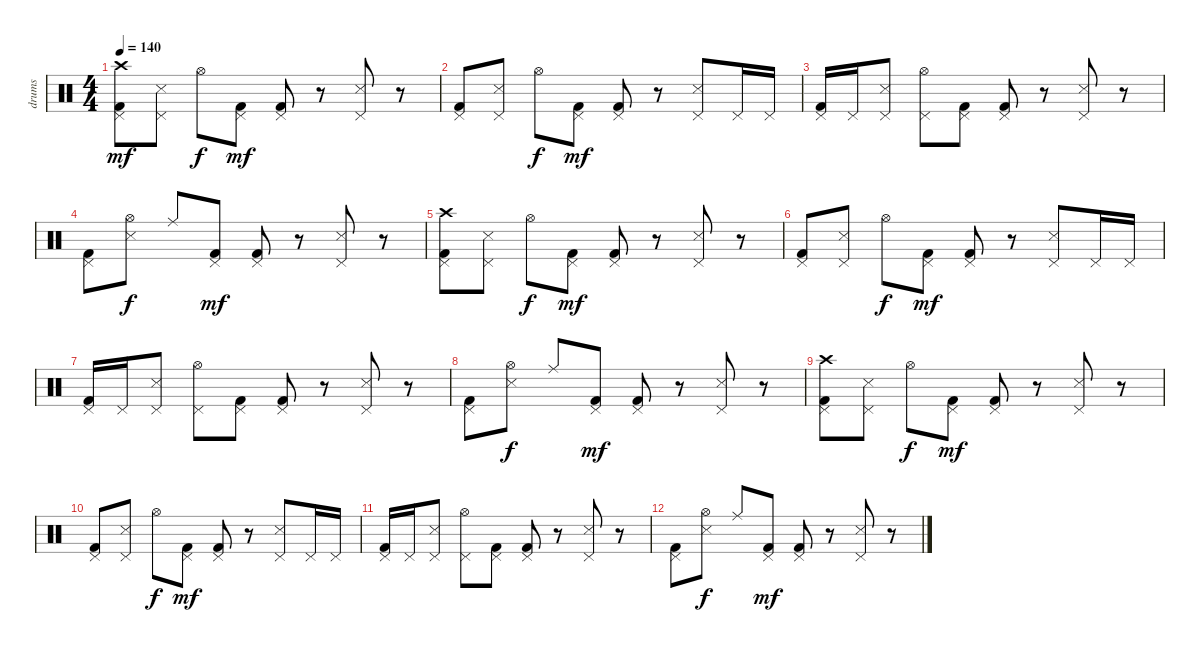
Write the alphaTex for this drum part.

\track ("drums" "drums") {instrument percussion}
\staff {score}
\articulation defaults
\ts (4 4)
\tempo 140
\clef neutral
\ks c
("Crash high (hit)" "Pedal Hi-Hat (hit)" "Kick (hit) 2").8{dy mf} ("Pedal Hi-Hat (hit)" "Snare (side stick) 3").8 "Hi-Hat (open)".8{dy f} ("Pedal Hi-Hat (hit)" "Kick (hit) 2").8{dy mf} ("Pedal Hi-Hat (hit)" "Kick (hit) 2").8 r.8 ("Pedal Hi-Hat (hit)" "Snare (side stick) 3").8 r.8 |
("Pedal Hi-Hat (hit)" "Kick (hit) 2").8 ("Pedal Hi-Hat (hit)" "Snare (side stick) 3").8 "Hi-Hat (open)".8{dy f} ("Pedal Hi-Hat (hit)" "Kick (hit) 2").8{dy mf} ("Pedal Hi-Hat (hit)" "Kick (hit) 2").8 r.8 ("Pedal Hi-Hat (hit)" "Snare (side stick) 3").8 "Pedal Hi-Hat (hit)".16 "Pedal Hi-Hat (hit)".16 |
("Pedal Hi-Hat (hit)" "Kick (hit) 2").16 "Pedal Hi-Hat (hit)".16 ("Pedal Hi-Hat (hit)" "Snare (side stick) 3").8 ("Pedal Hi-Hat (hit)" "Hi-Hat (open)").8 ("Pedal Hi-Hat (hit)" "Kick (hit) 2").8 ("Pedal Hi-Hat (hit)" "Kick (hit) 2").8 r.8 ("Pedal Hi-Hat (hit)" "Snare (side stick) 3").8 r.8 |
("Pedal Hi-Hat (hit)" "Kick (hit) 2").8 ("Hi-Hat (open)" "Snare (side stick) 3").8{dy f} "Ride (middle)".8 ("Pedal Hi-Hat (hit)" "Kick (hit) 2").8{dy mf} ("Pedal Hi-Hat (hit)" "Kick (hit) 2").8 r.8 ("Pedal Hi-Hat (hit)" "Snare (side stick) 3").8 r.8 |
("Crash high (hit)" "Pedal Hi-Hat (hit)" "Kick (hit) 2").8 ("Pedal Hi-Hat (hit)" "Snare (side stick) 3").8 "Hi-Hat (open)".8{dy f} ("Pedal Hi-Hat (hit)" "Kick (hit) 2").8{dy mf} ("Pedal Hi-Hat (hit)" "Kick (hit) 2").8 r.8 ("Pedal Hi-Hat (hit)" "Snare (side stick) 3").8 r.8 |
("Pedal Hi-Hat (hit)" "Kick (hit) 2").8 ("Pedal Hi-Hat (hit)" "Snare (side stick) 3").8 "Hi-Hat (open)".8{dy f} ("Pedal Hi-Hat (hit)" "Kick (hit) 2").8{dy mf} ("Pedal Hi-Hat (hit)" "Kick (hit) 2").8 r.8 ("Pedal Hi-Hat (hit)" "Snare (side stick) 3").8 "Pedal Hi-Hat (hit)".16 "Pedal Hi-Hat (hit)".16 |
("Pedal Hi-Hat (hit)" "Kick (hit) 2").16 "Pedal Hi-Hat (hit)".16 ("Pedal Hi-Hat (hit)" "Snare (side stick) 3").8 ("Pedal Hi-Hat (hit)" "Hi-Hat (open)").8 ("Pedal Hi-Hat (hit)" "Kick (hit) 2").8 ("Pedal Hi-Hat (hit)" "Kick (hit) 2").8 r.8 ("Pedal Hi-Hat (hit)" "Snare (side stick) 3").8 r.8 |
("Pedal Hi-Hat (hit)" "Kick (hit) 2").8 ("Hi-Hat (open)" "Snare (side stick) 3").8{dy f} "Ride (middle)".8 ("Pedal Hi-Hat (hit)" "Kick (hit) 2").8{dy mf} ("Pedal Hi-Hat (hit)" "Kick (hit) 2").8 r.8 ("Pedal Hi-Hat (hit)" "Snare (side stick) 3").8 r.8 |
("Crash high (hit)" "Pedal Hi-Hat (hit)" "Kick (hit) 2").8 ("Pedal Hi-Hat (hit)" "Snare (side stick) 3").8 "Hi-Hat (open)".8{dy f} ("Pedal Hi-Hat (hit)" "Kick (hit) 2").8{dy mf} ("Pedal Hi-Hat (hit)" "Kick (hit) 2").8 r.8 ("Pedal Hi-Hat (hit)" "Snare (side stick) 3").8 r.8 |
("Pedal Hi-Hat (hit)" "Kick (hit) 2").8 ("Pedal Hi-Hat (hit)" "Snare (side stick) 3").8 "Hi-Hat (open)".8{dy f} ("Pedal Hi-Hat (hit)" "Kick (hit) 2").8{dy mf} ("Pedal Hi-Hat (hit)" "Kick (hit) 2").8 r.8 ("Pedal Hi-Hat (hit)" "Snare (side stick) 3").8 "Pedal Hi-Hat (hit)".16 "Pedal Hi-Hat (hit)".16 |
("Pedal Hi-Hat (hit)" "Kick (hit) 2").16 "Pedal Hi-Hat (hit)".16 ("Pedal Hi-Hat (hit)" "Snare (side stick) 3").8 ("Pedal Hi-Hat (hit)" "Hi-Hat (open)").8 ("Pedal Hi-Hat (hit)" "Kick (hit) 2").8 ("Pedal Hi-Hat (hit)" "Kick (hit) 2").8 r.8 ("Pedal Hi-Hat (hit)" "Snare (side stick) 3").8 r.8 |
("Pedal Hi-Hat (hit)" "Kick (hit) 2").8 ("Hi-Hat (open)" "Snare (side stick) 3").8{dy f} "Ride (middle)".8 ("Pedal Hi-Hat (hit)" "Kick (hit) 2").8{dy mf} ("Pedal Hi-Hat (hit)" "Kick (hit) 2").8 r.8 ("Pedal Hi-Hat (hit)" "Snare (side stick) 3").8 r.8
